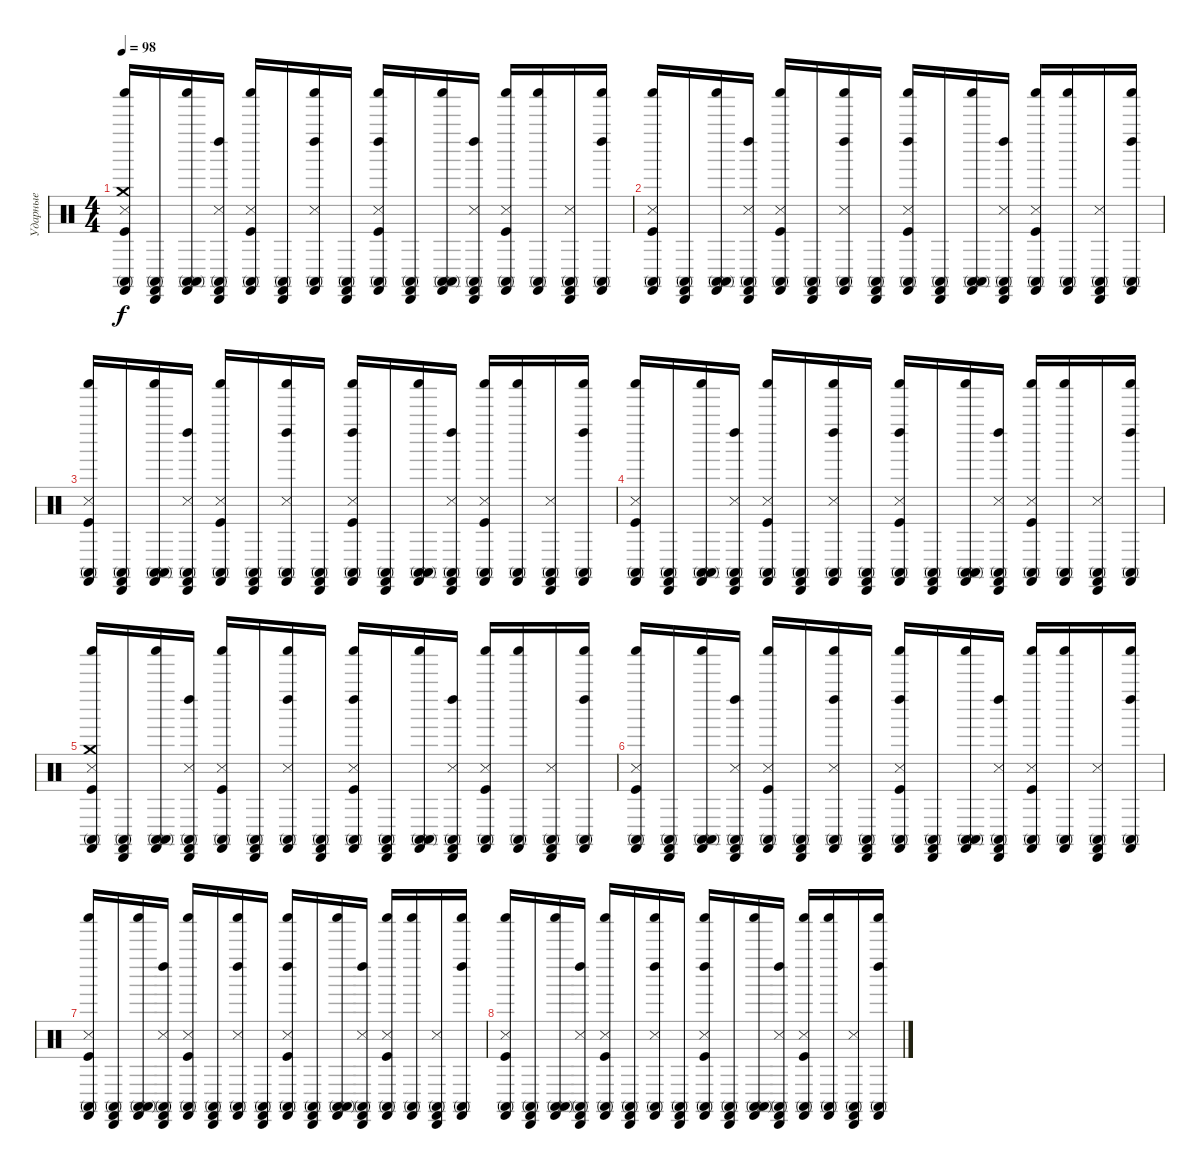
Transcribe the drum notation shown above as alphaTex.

\track ("Ударные" "Ударные") {instrument percussion}
\staff {score}
\articulation defaults
\ts (4 4)
\tempo 98
\clef neutral
\ks c
("Snare (side stick) 3" "Kick (hit)" "Crash medium (hit)" "Castanets (hit)" "Shaker (hit)" "Conga high (mute)").16{dy f} ("Castanets (hit)" "Cabasa (hit)" "Conga high (mute)").16 ("Conga high (mute)" "Castanets (hit)" "Shaker (hit)" "Conga high (mute)").16 ("Snare (side stick) 3" "Left Maraca (hit)" "Castanets (hit)" "Cabasa (hit)" "Conga high (mute)").16 ("Kick (hit)" "Snare (side stick) 3" "Castanets (hit)" "Shaker (hit)" "Conga high (mute)").16 ("Castanets (hit)" "Cabasa (hit)" "Conga high (mute)").16 ("Snare (side stick) 3" "Left Maraca (hit)" "Castanets (hit)" "Shaker (hit)" "Conga high (mute)").16 ("Castanets (hit)" "Cabasa (hit)" "Conga high (mute)").16 ("Snare (side stick) 3" "Kick (hit)" "Left Maraca (hit)" "Castanets (hit)" "Shaker (hit)" "Conga high (mute)").16 ("Castanets (hit)" "Cabasa (hit)" "Conga high (mute)").16 ("Conga high (mute)" "Castanets (hit)" "Shaker (hit)" "Conga high (mute)").16 ("Snare (side stick) 3" "Left Maraca (hit)" "Castanets (hit)" "Cabasa (hit)" "Conga high (mute)").16 ("Kick (hit)" "Snare (side stick) 3" "Castanets (hit)" "Shaker (hit)" "Conga high (mute)").16 ("Castanets (hit)" "Shaker (hit)" "Conga high (mute)").16 ("Snare (side stick) 3" "Castanets (hit)" "Cabasa (hit)" "Conga high (mute)").16 ("Left Maraca (hit)" "Castanets (hit)" "Shaker (hit)" "Conga high (mute)").16 |
("Snare (side stick) 3" "Kick (hit)" "Castanets (hit)" "Shaker (hit)" "Conga high (mute)").16 ("Castanets (hit)" "Cabasa (hit)" "Conga high (mute)").16 ("Conga high (mute)" "Castanets (hit)" "Shaker (hit)" "Conga high (mute)").16 ("Snare (side stick) 3" "Left Maraca (hit)" "Castanets (hit)" "Cabasa (hit)" "Conga high (mute)").16 ("Kick (hit)" "Snare (side stick) 3" "Castanets (hit)" "Shaker (hit)" "Conga high (mute)").16 ("Castanets (hit)" "Cabasa (hit)" "Conga high (mute)").16 ("Snare (side stick) 3" "Left Maraca (hit)" "Castanets (hit)" "Shaker (hit)" "Conga high (mute)").16 ("Castanets (hit)" "Cabasa (hit)" "Conga high (mute)").16 ("Snare (side stick) 3" "Kick (hit)" "Left Maraca (hit)" "Castanets (hit)" "Shaker (hit)" "Conga high (mute)").16 ("Castanets (hit)" "Cabasa (hit)" "Conga high (mute)").16 ("Conga high (mute)" "Castanets (hit)" "Shaker (hit)" "Conga high (mute)").16 ("Snare (side stick) 3" "Left Maraca (hit)" "Castanets (hit)" "Cabasa (hit)" "Conga high (mute)").16 ("Kick (hit)" "Snare (side stick) 3" "Castanets (hit)" "Shaker (hit)" "Conga high (mute)").16 ("Castanets (hit)" "Shaker (hit)" "Conga high (mute)").16 ("Snare (side stick) 3" "Castanets (hit)" "Cabasa (hit)" "Conga high (mute)").16 ("Left Maraca (hit)" "Castanets (hit)" "Shaker (hit)" "Conga high (mute)").16 |
("Snare (side stick) 3" "Kick (hit)" "Castanets (hit)" "Shaker (hit)" "Conga high (mute)").16 ("Castanets (hit)" "Cabasa (hit)" "Conga high (mute)").16 ("Conga high (mute)" "Castanets (hit)" "Shaker (hit)" "Conga high (mute)").16 ("Snare (side stick) 3" "Left Maraca (hit)" "Castanets (hit)" "Cabasa (hit)" "Conga high (mute)").16 ("Kick (hit)" "Snare (side stick) 3" "Castanets (hit)" "Shaker (hit)" "Conga high (mute)").16 ("Castanets (hit)" "Cabasa (hit)" "Conga high (mute)").16 ("Snare (side stick) 3" "Left Maraca (hit)" "Castanets (hit)" "Shaker (hit)" "Conga high (mute)").16 ("Castanets (hit)" "Cabasa (hit)" "Conga high (mute)").16 ("Snare (side stick) 3" "Kick (hit)" "Left Maraca (hit)" "Castanets (hit)" "Shaker (hit)" "Conga high (mute)").16 ("Castanets (hit)" "Cabasa (hit)" "Conga high (mute)").16 ("Conga high (mute)" "Castanets (hit)" "Shaker (hit)" "Conga high (mute)").16 ("Snare (side stick) 3" "Left Maraca (hit)" "Castanets (hit)" "Cabasa (hit)" "Conga high (mute)").16 ("Kick (hit)" "Snare (side stick) 3" "Castanets (hit)" "Shaker (hit)" "Conga high (mute)").16 ("Castanets (hit)" "Shaker (hit)" "Conga high (mute)").16 ("Snare (side stick) 3" "Castanets (hit)" "Cabasa (hit)" "Conga high (mute)").16 ("Left Maraca (hit)" "Castanets (hit)" "Shaker (hit)" "Conga high (mute)").16 |
("Snare (side stick) 3" "Kick (hit)" "Castanets (hit)" "Shaker (hit)" "Conga high (mute)").16 ("Castanets (hit)" "Cabasa (hit)" "Conga high (mute)").16 ("Conga high (mute)" "Castanets (hit)" "Shaker (hit)" "Conga high (mute)").16 ("Snare (side stick) 3" "Left Maraca (hit)" "Castanets (hit)" "Cabasa (hit)" "Conga high (mute)").16 ("Kick (hit)" "Snare (side stick) 3" "Castanets (hit)" "Shaker (hit)" "Conga high (mute)").16 ("Castanets (hit)" "Cabasa (hit)" "Conga high (mute)").16 ("Snare (side stick) 3" "Left Maraca (hit)" "Castanets (hit)" "Shaker (hit)" "Conga high (mute)").16 ("Castanets (hit)" "Cabasa (hit)" "Conga high (mute)").16 ("Snare (side stick) 3" "Kick (hit)" "Left Maraca (hit)" "Castanets (hit)" "Shaker (hit)" "Conga high (mute)").16 ("Castanets (hit)" "Cabasa (hit)" "Conga high (mute)").16 ("Conga high (mute)" "Castanets (hit)" "Shaker (hit)" "Conga high (mute)").16 ("Snare (side stick) 3" "Left Maraca (hit)" "Castanets (hit)" "Cabasa (hit)" "Conga high (mute)").16 ("Kick (hit)" "Snare (side stick) 3" "Castanets (hit)" "Shaker (hit)" "Conga high (mute)").16 ("Castanets (hit)" "Shaker (hit)" "Conga high (mute)").16 ("Snare (side stick) 3" "Castanets (hit)" "Cabasa (hit)" "Conga high (mute)").16 ("Left Maraca (hit)" "Castanets (hit)" "Shaker (hit)" "Conga high (mute)").16 |
("Snare (side stick) 3" "Kick (hit)" "Crash medium (hit)" "Castanets (hit)" "Shaker (hit)" "Conga high (mute)").16 ("Castanets (hit)" "Cabasa (hit)" "Conga high (mute)").16 ("Conga high (mute)" "Castanets (hit)" "Shaker (hit)" "Conga high (mute)").16 ("Snare (side stick) 3" "Left Maraca (hit)" "Castanets (hit)" "Cabasa (hit)" "Conga high (mute)").16 ("Kick (hit)" "Snare (side stick) 3" "Castanets (hit)" "Shaker (hit)" "Conga high (mute)").16 ("Castanets (hit)" "Cabasa (hit)" "Conga high (mute)").16 ("Snare (side stick) 3" "Left Maraca (hit)" "Castanets (hit)" "Shaker (hit)" "Conga high (mute)").16 ("Castanets (hit)" "Cabasa (hit)" "Conga high (mute)").16 ("Snare (side stick) 3" "Kick (hit)" "Left Maraca (hit)" "Castanets (hit)" "Shaker (hit)" "Conga high (mute)").16 ("Castanets (hit)" "Cabasa (hit)" "Conga high (mute)").16 ("Conga high (mute)" "Castanets (hit)" "Shaker (hit)" "Conga high (mute)").16 ("Snare (side stick) 3" "Left Maraca (hit)" "Castanets (hit)" "Cabasa (hit)" "Conga high (mute)").16 ("Kick (hit)" "Snare (side stick) 3" "Castanets (hit)" "Shaker (hit)" "Conga high (mute)").16 ("Castanets (hit)" "Shaker (hit)" "Conga high (mute)").16 ("Snare (side stick) 3" "Castanets (hit)" "Cabasa (hit)" "Conga high (mute)").16 ("Left Maraca (hit)" "Castanets (hit)" "Shaker (hit)" "Conga high (mute)").16 |
("Snare (side stick) 3" "Kick (hit)" "Castanets (hit)" "Shaker (hit)" "Conga high (mute)").16 ("Castanets (hit)" "Cabasa (hit)" "Conga high (mute)").16 ("Conga high (mute)" "Castanets (hit)" "Shaker (hit)" "Conga high (mute)").16 ("Snare (side stick) 3" "Left Maraca (hit)" "Castanets (hit)" "Cabasa (hit)" "Conga high (mute)").16 ("Kick (hit)" "Snare (side stick) 3" "Castanets (hit)" "Shaker (hit)" "Conga high (mute)").16 ("Castanets (hit)" "Cabasa (hit)" "Conga high (mute)").16 ("Snare (side stick) 3" "Left Maraca (hit)" "Castanets (hit)" "Shaker (hit)" "Conga high (mute)").16 ("Castanets (hit)" "Cabasa (hit)" "Conga high (mute)").16 ("Snare (side stick) 3" "Kick (hit)" "Left Maraca (hit)" "Castanets (hit)" "Shaker (hit)" "Conga high (mute)").16 ("Castanets (hit)" "Cabasa (hit)" "Conga high (mute)").16 ("Conga high (mute)" "Castanets (hit)" "Shaker (hit)" "Conga high (mute)").16 ("Snare (side stick) 3" "Left Maraca (hit)" "Castanets (hit)" "Cabasa (hit)" "Conga high (mute)").16 ("Kick (hit)" "Snare (side stick) 3" "Castanets (hit)" "Shaker (hit)" "Conga high (mute)").16 ("Castanets (hit)" "Shaker (hit)" "Conga high (mute)").16 ("Snare (side stick) 3" "Castanets (hit)" "Cabasa (hit)" "Conga high (mute)").16 ("Left Maraca (hit)" "Castanets (hit)" "Shaker (hit)" "Conga high (mute)").16 |
("Snare (side stick) 3" "Kick (hit)" "Castanets (hit)" "Shaker (hit)" "Conga high (mute)").16 ("Castanets (hit)" "Cabasa (hit)" "Conga high (mute)").16 ("Conga high (mute)" "Castanets (hit)" "Shaker (hit)" "Conga high (mute)").16 ("Snare (side stick) 3" "Left Maraca (hit)" "Castanets (hit)" "Cabasa (hit)" "Conga high (mute)").16 ("Kick (hit)" "Snare (side stick) 3" "Castanets (hit)" "Shaker (hit)" "Conga high (mute)").16 ("Castanets (hit)" "Cabasa (hit)" "Conga high (mute)").16 ("Snare (side stick) 3" "Left Maraca (hit)" "Castanets (hit)" "Shaker (hit)" "Conga high (mute)").16 ("Castanets (hit)" "Cabasa (hit)" "Conga high (mute)").16 ("Snare (side stick) 3" "Kick (hit)" "Left Maraca (hit)" "Castanets (hit)" "Shaker (hit)" "Conga high (mute)").16 ("Castanets (hit)" "Cabasa (hit)" "Conga high (mute)").16 ("Conga high (mute)" "Castanets (hit)" "Shaker (hit)" "Conga high (mute)").16 ("Snare (side stick) 3" "Left Maraca (hit)" "Castanets (hit)" "Cabasa (hit)" "Conga high (mute)").16 ("Kick (hit)" "Snare (side stick) 3" "Castanets (hit)" "Shaker (hit)" "Conga high (mute)").16 ("Castanets (hit)" "Shaker (hit)" "Conga high (mute)").16 ("Snare (side stick) 3" "Castanets (hit)" "Cabasa (hit)" "Conga high (mute)").16 ("Left Maraca (hit)" "Castanets (hit)" "Shaker (hit)" "Conga high (mute)").16 |
("Snare (side stick) 3" "Kick (hit)" "Castanets (hit)" "Shaker (hit)" "Conga high (mute)").16 ("Castanets (hit)" "Cabasa (hit)" "Conga high (mute)").16 ("Conga high (mute)" "Castanets (hit)" "Shaker (hit)" "Conga high (mute)").16 ("Snare (side stick) 3" "Left Maraca (hit)" "Castanets (hit)" "Cabasa (hit)" "Conga high (mute)").16 ("Kick (hit)" "Snare (side stick) 3" "Castanets (hit)" "Shaker (hit)" "Conga high (mute)").16 ("Castanets (hit)" "Cabasa (hit)" "Conga high (mute)").16 ("Snare (side stick) 3" "Left Maraca (hit)" "Castanets (hit)" "Shaker (hit)" "Conga high (mute)").16 ("Castanets (hit)" "Cabasa (hit)" "Conga high (mute)").16 ("Snare (side stick) 3" "Kick (hit)" "Left Maraca (hit)" "Castanets (hit)" "Shaker (hit)" "Conga high (mute)").16 ("Castanets (hit)" "Cabasa (hit)" "Conga high (mute)").16 ("Conga high (mute)" "Castanets (hit)" "Shaker (hit)" "Conga high (mute)").16 ("Snare (side stick) 3" "Left Maraca (hit)" "Castanets (hit)" "Cabasa (hit)" "Conga high (mute)").16 ("Kick (hit)" "Snare (side stick) 3" "Castanets (hit)" "Shaker (hit)" "Conga high (mute)").16 ("Castanets (hit)" "Shaker (hit)" "Conga high (mute)").16 ("Snare (side stick) 3" "Castanets (hit)" "Cabasa (hit)" "Conga high (mute)").16 ("Left Maraca (hit)" "Castanets (hit)" "Shaker (hit)" "Conga high (mute)").16
